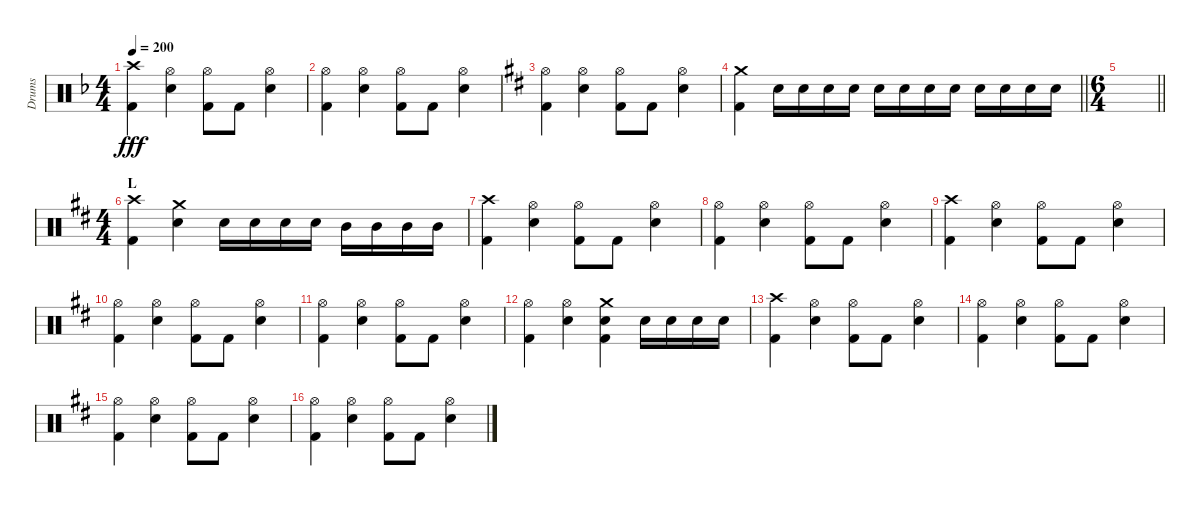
\track ("Drums" "Drums") {instrument percussion}
\staff {score}
\articulation defaults
\ts (4 4)
\tempo 200
\clef neutral
\ks dminor
("Crash high (hit)" "Kick (hit) 2").4{dy fff} ("Hi-Hat (open)" "Snare (hit) 2").4 ("Hi-Hat (open)" "Kick (hit) 2").8 "Kick (hit) 2".8 ("Hi-Hat (open)" "Snare (hit) 2").4 |
("Hi-Hat (open)" "Kick (hit) 2").4 ("Hi-Hat (open)" "Snare (hit) 2").4 ("Hi-Hat (open)" "Kick (hit) 2").8 "Kick (hit) 2".8 ("Hi-Hat (open)" "Snare (hit) 2").4 |
\ks d
("Hi-Hat (open)" "Kick (hit) 2").4 ("Hi-Hat (open)" "Snare (hit) 2").4 ("Hi-Hat (open)" "Kick (hit) 2").8 "Kick (hit) 2".8 ("Hi-Hat (open)" "Snare (hit) 2").4 |
\barLineRight lightlight
("Crash medium (hit)" "Kick (hit) 2").4 "Snare (hit) 2".16 "Snare (hit) 2".16 "Snare (hit) 2".16 "Snare (hit) 2".16 "Snare (hit) 2".16 "Snare (hit) 2".16 "Snare (hit) 2".16 "Snare (hit) 2".16 "Snare (hit) 2".16 "Snare (hit) 2".16 "Snare (hit) 2".16 "Snare (hit) 2".16 |
\ts (6 4)
\barLineRight lightlight
|
\ts (4 4)
\section ("" "L")
("Crash high (hit)" "Kick (hit) 2").4 ("Crash medium (hit)" "Snare (hit) 2").4 "Snare (hit) 2".16 "Snare (hit) 2".16 "Snare (hit) 2".16 "Snare (hit) 2".16 "Mid Tom (hit)".16 "Mid Tom (hit)".16 "Mid Tom (hit)".16 "Mid Tom (hit)".16 |
("Crash high (hit)" "Kick (hit) 2").4 ("Hi-Hat (open)" "Snare (hit) 2").4 ("Hi-Hat (open)" "Kick (hit) 2").8 "Kick (hit) 2".8 ("Hi-Hat (open)" "Snare (hit) 2").4 |
("Hi-Hat (open)" "Kick (hit) 2").4 ("Hi-Hat (open)" "Snare (hit) 2").4 ("Hi-Hat (open)" "Kick (hit) 2").8 "Kick (hit) 2".8 ("Hi-Hat (open)" "Snare (hit) 2").4 |
("Crash high (hit)" "Kick (hit) 2").4 ("Hi-Hat (open)" "Snare (hit) 2").4 ("Hi-Hat (open)" "Kick (hit) 2").8 "Kick (hit) 2".8 ("Hi-Hat (open)" "Snare (hit) 2").4 |
("Hi-Hat (open)" "Kick (hit) 2").4 ("Hi-Hat (open)" "Snare (hit) 2").4 ("Hi-Hat (open)" "Kick (hit) 2").8 "Kick (hit) 2".8 ("Hi-Hat (open)" "Snare (hit) 2").4 |
("Hi-Hat (open)" "Kick (hit) 2").4 ("Hi-Hat (open)" "Snare (hit) 2").4 ("Hi-Hat (open)" "Kick (hit) 2").8 "Kick (hit) 2".8 ("Hi-Hat (open)" "Snare (hit) 2").4 |
("Hi-Hat (open)" "Kick (hit) 2").4 ("Hi-Hat (open)" "Snare (hit) 2").4 ("Crash medium (hit)" "Snare (hit) 2" "Kick (hit) 2").4 "Snare (hit) 2".16 "Snare (hit) 2".16 "Snare (hit) 2".16 "Snare (hit) 2".16 |
("Crash high (hit)" "Kick (hit) 2").4 ("Hi-Hat (open)" "Snare (hit) 2").4 ("Hi-Hat (open)" "Kick (hit) 2").8 "Kick (hit) 2".8 ("Hi-Hat (open)" "Snare (hit) 2").4 |
("Hi-Hat (open)" "Kick (hit) 2").4 ("Hi-Hat (open)" "Snare (hit) 2").4 ("Hi-Hat (open)" "Kick (hit) 2").8 "Kick (hit) 2".8 ("Hi-Hat (open)" "Snare (hit) 2").4 |
("Hi-Hat (open)" "Kick (hit) 2").4 ("Hi-Hat (open)" "Snare (hit) 2").4 ("Hi-Hat (open)" "Kick (hit) 2").8 "Kick (hit) 2".8 ("Hi-Hat (open)" "Snare (hit) 2").4 |
("Hi-Hat (open)" "Kick (hit) 2").4 ("Hi-Hat (open)" "Snare (hit) 2").4 ("Hi-Hat (open)" "Kick (hit) 2").8 "Kick (hit) 2".8 ("Hi-Hat (open)" "Snare (hit) 2").4
